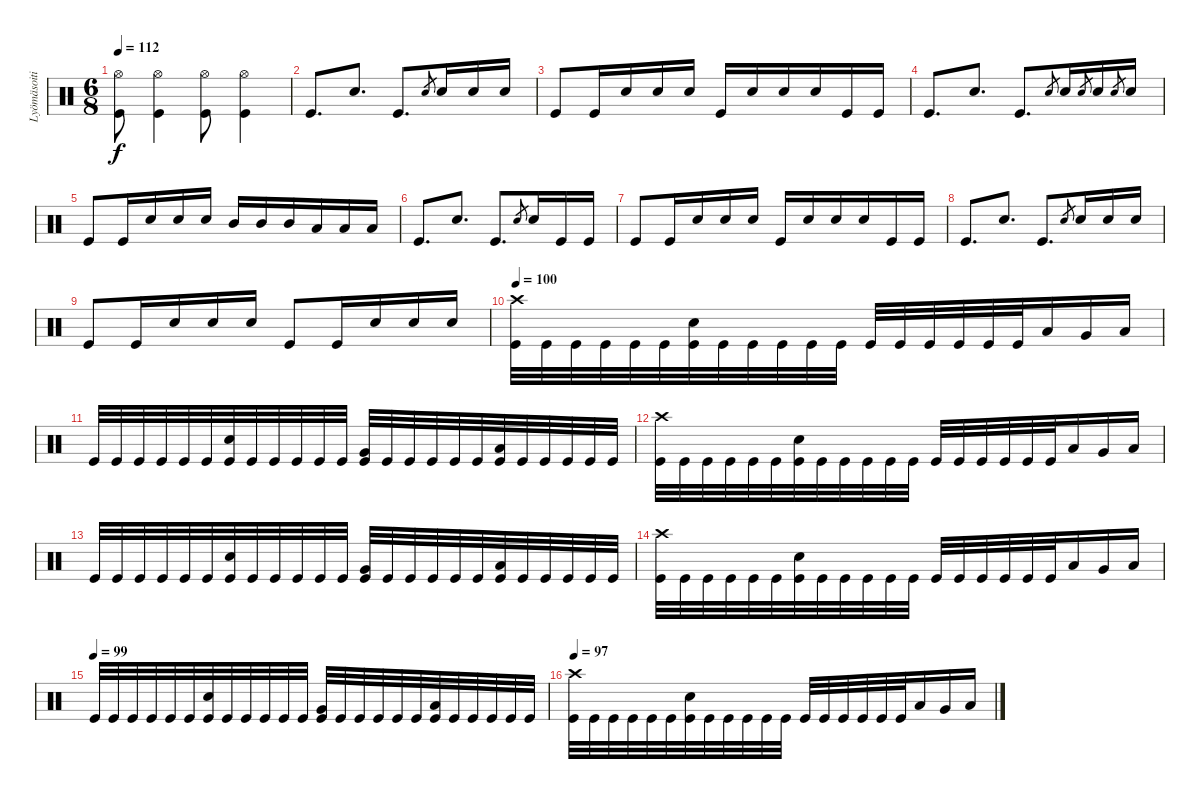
\track ("Lyömäsoitin" "Lyömäsoiti") {instrument percussion}
\staff {score}
\articulation defaults
\ts (6 8)
\tempo 112
\clef neutral
\ks c
("Kick (hit)" "Hi-Hat (open)").8{dy f} ("Kick (hit)" "Hi-Hat (open)").4 ("Kick (hit)" "Hi-Hat (open)").8 ("Kick (hit)" "Hi-Hat (open)").4 |
"Kick (hit)".8{d} "Snare (hit) 2".8{d} "Kick (hit)".8{d} "Snare (hit) 2".8{gr} "Snare (hit) 2".16 "Snare (hit) 2".16 "Snare (hit) 2".16 |
"Kick (hit)".8 "Kick (hit)".16 "Snare (hit) 2".16 "Snare (hit) 2".16 "Snare (hit) 2".16 "Kick (hit)".16 "Snare (hit) 2".16 "Snare (hit) 2".16 "Snare (hit) 2".16 "Kick (hit)".16 "Kick (hit)".16 |
"Kick (hit)".8{d} "Snare (hit) 2".8{d} "Kick (hit)".8{d} "Snare (hit) 2".8{gr} "Snare (hit) 2".16 "Snare (hit) 2".8{gr} "Snare (hit) 2".16 "Snare (hit) 2".8{gr} "Snare (hit) 2".16 |
"Kick (hit)".8 "Kick (hit)".16 "Snare (hit) 2".16 "Snare (hit) 2".16 "Snare (hit) 2".16 "Mid Tom (hit)".16 "Mid Tom (hit)".16 "Mid Tom (hit)".16 "Low Tom (hit)".16 "Low Tom (hit)".16 "Low Tom (hit)".16 |
"Kick (hit)".8{d} "Snare (hit) 2".8{d} "Kick (hit)".8{d} "Snare (hit) 2".8{gr} "Snare (hit) 2".16 "Kick (hit)".16 "Kick (hit)".16 |
"Kick (hit)".8 "Kick (hit)".16 "Snare (hit) 2".16 "Snare (hit) 2".16 "Snare (hit) 2".16 "Kick (hit)".16 "Snare (hit) 2".16 "Snare (hit) 2".16 "Snare (hit) 2".16 "Kick (hit)".16 "Kick (hit)".16 |
"Kick (hit)".8{d} "Snare (hit) 2".8{d} "Kick (hit)".8{d} "Snare (hit) 2".8{gr} "Snare (hit) 2".16 "Snare (hit) 2".16 "Snare (hit) 2".16 |
"Kick (hit)".8 "Kick (hit)".16 "Snare (hit) 2".16 "Snare (hit) 2".16 "Snare (hit) 2".16 "Kick (hit)".8 "Kick (hit)".16 "Snare (hit) 2".16 "Snare (hit) 2".16 "Snare (hit) 2".16 |
\tempo 100
("Kick (hit)" "Crash high (hit)").32 "Kick (hit)".32 "Kick (hit)".32 "Kick (hit)".32 "Kick (hit)".32 "Kick (hit)".32 ("Kick (hit)" "Snare (hit) 2").32 "Kick (hit)".32 "Kick (hit)".32 "Kick (hit)".32 "Kick (hit)".32 "Kick (hit)".32 "Kick (hit)".32 "Kick (hit)".32 "Kick (hit)".32 "Kick (hit)".32 "Kick (hit)".32 "Kick (hit)".32 "Low Tom (hit)".16 "Very Low Tom (hit)".16 "Low Floor Tom (hit)".16 |
"Kick (hit)".32 "Kick (hit)".32 "Kick (hit)".32 "Kick (hit)".32 "Kick (hit)".32 "Kick (hit)".32 ("Kick (hit)" "Snare (hit) 2").32 "Kick (hit)".32 "Kick (hit)".32 "Kick (hit)".32 "Kick (hit)".32 "Kick (hit)".32 ("Kick (hit)" "Very Low Tom (hit)").32 "Kick (hit)".32 "Kick (hit)".32 "Kick (hit)".32 "Kick (hit)".32 "Kick (hit)".32 ("Kick (hit)" "Low Floor Tom (hit)").32 "Kick (hit)".32 "Kick (hit)".32 "Kick (hit)".32 "Kick (hit)".32 "Kick (hit)".32 |
("Kick (hit)" "Crash high (hit)").32 "Kick (hit)".32 "Kick (hit)".32 "Kick (hit)".32 "Kick (hit)".32 "Kick (hit)".32 ("Kick (hit)" "Snare (hit) 2").32 "Kick (hit)".32 "Kick (hit)".32 "Kick (hit)".32 "Kick (hit)".32 "Kick (hit)".32 "Kick (hit)".32 "Kick (hit)".32 "Kick (hit)".32 "Kick (hit)".32 "Kick (hit)".32 "Kick (hit)".32 "Low Tom (hit)".16 "Very Low Tom (hit)".16 "Low Floor Tom (hit)".16 |
"Kick (hit)".32 "Kick (hit)".32 "Kick (hit)".32 "Kick (hit)".32 "Kick (hit)".32 "Kick (hit)".32 ("Kick (hit)" "Snare (hit) 2").32 "Kick (hit)".32 "Kick (hit)".32 "Kick (hit)".32 "Kick (hit)".32 "Kick (hit)".32 ("Kick (hit)" "Very Low Tom (hit)").32 "Kick (hit)".32 "Kick (hit)".32 "Kick (hit)".32 "Kick (hit)".32 "Kick (hit)".32 ("Kick (hit)" "Low Floor Tom (hit)").32 "Kick (hit)".32 "Kick (hit)".32 "Kick (hit)".32 "Kick (hit)".32 "Kick (hit)".32 |
("Kick (hit)" "Crash high (hit)").32 "Kick (hit)".32 "Kick (hit)".32 "Kick (hit)".32 "Kick (hit)".32 "Kick (hit)".32 ("Kick (hit)" "Snare (hit) 2").32 "Kick (hit)".32 "Kick (hit)".32 "Kick (hit)".32 "Kick (hit)".32 "Kick (hit)".32 "Kick (hit)".32 "Kick (hit)".32 "Kick (hit)".32 "Kick (hit)".32 "Kick (hit)".32 "Kick (hit)".32 "Low Tom (hit)".16 "Very Low Tom (hit)".16 "Low Floor Tom (hit)".16 |
\tempo (99)
"Kick (hit)".32 "Kick (hit)".32 "Kick (hit)".32 "Kick (hit)".32 "Kick (hit)".32 "Kick (hit)".32 ("Kick (hit)" "Snare (hit) 2").32 "Kick (hit)".32 "Kick (hit)".32 "Kick (hit)".32 "Kick (hit)".32 "Kick (hit)".32 ("Kick (hit)" "Very Low Tom (hit)").32 "Kick (hit)".32 "Kick (hit)".32 "Kick (hit)".32 "Kick (hit)".32 "Kick (hit)".32 ("Kick (hit)" "Low Floor Tom (hit)").32 "Kick (hit)".32 "Kick (hit)".32 "Kick (hit)".32 "Kick (hit)".32 "Kick (hit)".32 |
\tempo 97
("Kick (hit)" "Crash high (hit)").32 "Kick (hit)".32 "Kick (hit)".32 "Kick (hit)".32 "Kick (hit)".32 "Kick (hit)".32 ("Kick (hit)" "Snare (hit) 2").32 "Kick (hit)".32 "Kick (hit)".32 "Kick (hit)".32 "Kick (hit)".32 "Kick (hit)".32 "Kick (hit)".32 "Kick (hit)".32 "Kick (hit)".32 "Kick (hit)".32 "Kick (hit)".32 "Kick (hit)".32 "Low Tom (hit)".16 "Very Low Tom (hit)".16 "Low Floor Tom (hit)".16
